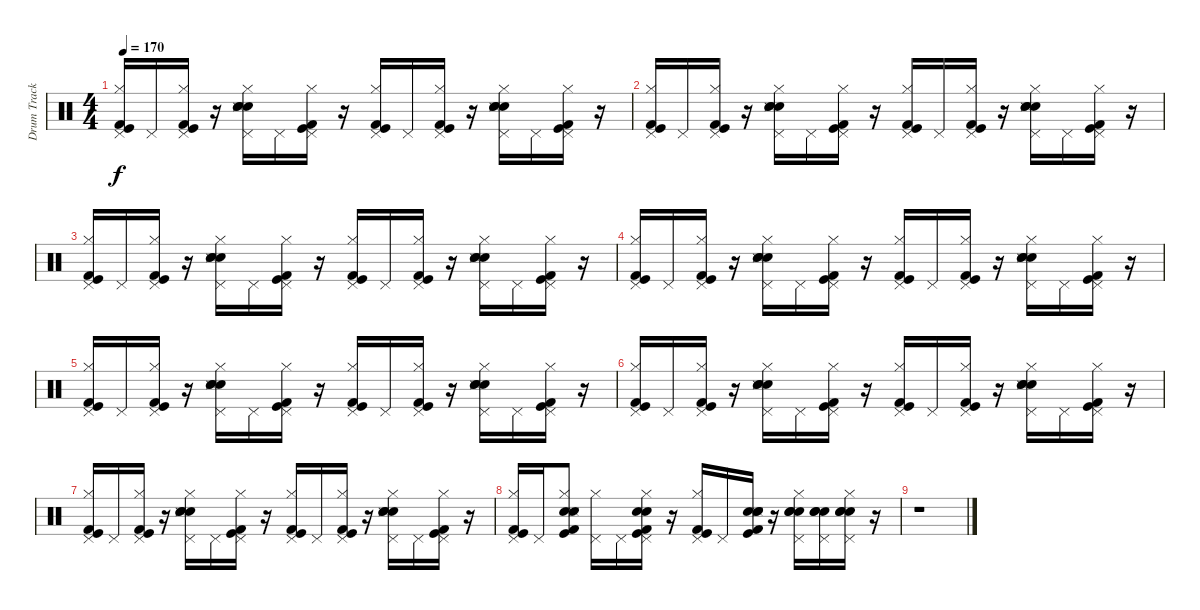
\track ("Drum Track" "Drum Track") {instrument percussion}
\staff {score}
\articulation defaults
\ts (4 4)
\tempo 170
\clef neutral
\ks c
("Kick (hit)" "Kick (hit) 2" "Hi-Hat (closed)" "Pedal Hi-Hat (hit)").16{dy f} "Pedal Hi-Hat (hit)".16 ("Kick (hit)" "Kick (hit) 2" "Hi-Hat (closed)" "Pedal Hi-Hat (hit)").16 r.16 ("Snare (hit) 2" "Electric Snare (hit)" "Snare (side stick) 3" "Hand Clap (hit)" "Hi-Hat (closed)" "Pedal Hi-Hat (hit)").16 "Pedal Hi-Hat (hit)".16 ("Kick (hit) 2" "Kick (hit)" "Hi-Hat (closed)" "Pedal Hi-Hat (hit)").16 r.16 ("Kick (hit)" "Kick (hit) 2" "Hi-Hat (closed)" "Pedal Hi-Hat (hit)").16 "Pedal Hi-Hat (hit)".16 ("Kick (hit)" "Kick (hit) 2" "Hi-Hat (closed)" "Pedal Hi-Hat (hit)").16 r.16 ("Snare (hit) 2" "Electric Snare (hit)" "Snare (side stick) 3" "Hand Clap (hit)" "Hi-Hat (closed)" "Pedal Hi-Hat (hit)").16 "Pedal Hi-Hat (hit)".16 ("Kick (hit) 2" "Kick (hit)" "Hi-Hat (closed)" "Pedal Hi-Hat (hit)").16 r.16 |
("Kick (hit)" "Kick (hit) 2" "Hi-Hat (closed)" "Pedal Hi-Hat (hit)").16 "Pedal Hi-Hat (hit)".16 ("Kick (hit)" "Kick (hit) 2" "Hi-Hat (closed)" "Pedal Hi-Hat (hit)").16 r.16 ("Snare (hit) 2" "Electric Snare (hit)" "Snare (side stick) 3" "Hand Clap (hit)" "Hi-Hat (closed)" "Pedal Hi-Hat (hit)").16 "Pedal Hi-Hat (hit)".16 ("Kick (hit) 2" "Kick (hit)" "Hi-Hat (closed)" "Pedal Hi-Hat (hit)").16 r.16 ("Kick (hit)" "Kick (hit) 2" "Hi-Hat (closed)" "Pedal Hi-Hat (hit)").16 "Pedal Hi-Hat (hit)".16 ("Kick (hit)" "Kick (hit) 2" "Hi-Hat (closed)" "Pedal Hi-Hat (hit)").16 r.16 ("Snare (hit) 2" "Electric Snare (hit)" "Snare (side stick) 3" "Hand Clap (hit)" "Hi-Hat (closed)" "Pedal Hi-Hat (hit)").16 "Pedal Hi-Hat (hit)".16 ("Kick (hit) 2" "Kick (hit)" "Hi-Hat (closed)" "Pedal Hi-Hat (hit)").16 r.16 |
("Kick (hit)" "Kick (hit) 2" "Hi-Hat (closed)" "Pedal Hi-Hat (hit)").16 "Pedal Hi-Hat (hit)".16 ("Kick (hit)" "Kick (hit) 2" "Hi-Hat (closed)" "Pedal Hi-Hat (hit)").16 r.16 ("Snare (hit) 2" "Electric Snare (hit)" "Snare (side stick) 3" "Hand Clap (hit)" "Hi-Hat (closed)" "Pedal Hi-Hat (hit)").16 "Pedal Hi-Hat (hit)".16 ("Kick (hit) 2" "Kick (hit)" "Hi-Hat (closed)" "Pedal Hi-Hat (hit)").16 r.16 ("Kick (hit)" "Kick (hit) 2" "Hi-Hat (closed)" "Pedal Hi-Hat (hit)").16 "Pedal Hi-Hat (hit)".16 ("Kick (hit)" "Kick (hit) 2" "Hi-Hat (closed)" "Pedal Hi-Hat (hit)").16 r.16 ("Snare (hit) 2" "Electric Snare (hit)" "Snare (side stick) 3" "Hand Clap (hit)" "Hi-Hat (closed)" "Pedal Hi-Hat (hit)").16 "Pedal Hi-Hat (hit)".16 ("Kick (hit) 2" "Kick (hit)" "Hi-Hat (closed)" "Pedal Hi-Hat (hit)").16 r.16 |
("Kick (hit)" "Kick (hit) 2" "Hi-Hat (closed)" "Pedal Hi-Hat (hit)").16 "Pedal Hi-Hat (hit)".16 ("Kick (hit)" "Kick (hit) 2" "Hi-Hat (closed)" "Pedal Hi-Hat (hit)").16 r.16 ("Snare (hit) 2" "Electric Snare (hit)" "Snare (side stick) 3" "Hand Clap (hit)" "Hi-Hat (closed)" "Pedal Hi-Hat (hit)").16 "Pedal Hi-Hat (hit)".16 ("Kick (hit) 2" "Kick (hit)" "Hi-Hat (closed)" "Pedal Hi-Hat (hit)").16 r.16 ("Kick (hit)" "Kick (hit) 2" "Hi-Hat (closed)" "Pedal Hi-Hat (hit)").16 "Pedal Hi-Hat (hit)".16 ("Kick (hit)" "Kick (hit) 2" "Hi-Hat (closed)" "Pedal Hi-Hat (hit)").16 r.16 ("Snare (hit) 2" "Electric Snare (hit)" "Snare (side stick) 3" "Hand Clap (hit)" "Hi-Hat (closed)" "Pedal Hi-Hat (hit)").16 "Pedal Hi-Hat (hit)".16 ("Kick (hit) 2" "Kick (hit)" "Hi-Hat (closed)" "Pedal Hi-Hat (hit)").16 r.16 |
("Kick (hit)" "Kick (hit) 2" "Hi-Hat (closed)" "Pedal Hi-Hat (hit)").16 "Pedal Hi-Hat (hit)".16 ("Kick (hit)" "Kick (hit) 2" "Hi-Hat (closed)" "Pedal Hi-Hat (hit)").16 r.16 ("Snare (hit) 2" "Electric Snare (hit)" "Snare (side stick) 3" "Hand Clap (hit)" "Hi-Hat (closed)" "Pedal Hi-Hat (hit)").16 "Pedal Hi-Hat (hit)".16 ("Kick (hit) 2" "Kick (hit)" "Hi-Hat (closed)" "Pedal Hi-Hat (hit)").16 r.16 ("Kick (hit)" "Kick (hit) 2" "Hi-Hat (closed)" "Pedal Hi-Hat (hit)").16 "Pedal Hi-Hat (hit)".16 ("Kick (hit)" "Kick (hit) 2" "Hi-Hat (closed)" "Pedal Hi-Hat (hit)").16 r.16 ("Snare (hit) 2" "Electric Snare (hit)" "Snare (side stick) 3" "Hand Clap (hit)" "Hi-Hat (closed)" "Pedal Hi-Hat (hit)").16 "Pedal Hi-Hat (hit)".16 ("Kick (hit) 2" "Kick (hit)" "Hi-Hat (closed)" "Pedal Hi-Hat (hit)").16 r.16 |
("Kick (hit)" "Kick (hit) 2" "Hi-Hat (closed)" "Pedal Hi-Hat (hit)").16 "Pedal Hi-Hat (hit)".16 ("Kick (hit)" "Kick (hit) 2" "Hi-Hat (closed)" "Pedal Hi-Hat (hit)").16 r.16 ("Snare (hit) 2" "Electric Snare (hit)" "Snare (side stick) 3" "Hand Clap (hit)" "Hi-Hat (closed)" "Pedal Hi-Hat (hit)").16 "Pedal Hi-Hat (hit)".16 ("Kick (hit) 2" "Kick (hit)" "Hi-Hat (closed)" "Pedal Hi-Hat (hit)").16 r.16 ("Kick (hit)" "Kick (hit) 2" "Hi-Hat (closed)" "Pedal Hi-Hat (hit)").16 "Pedal Hi-Hat (hit)".16 ("Kick (hit)" "Kick (hit) 2" "Hi-Hat (closed)" "Pedal Hi-Hat (hit)").16 r.16 ("Snare (hit) 2" "Electric Snare (hit)" "Snare (side stick) 3" "Hand Clap (hit)" "Hi-Hat (closed)" "Pedal Hi-Hat (hit)").16 "Pedal Hi-Hat (hit)".16 ("Kick (hit) 2" "Kick (hit)" "Hi-Hat (closed)" "Pedal Hi-Hat (hit)").16 r.16 |
("Kick (hit)" "Kick (hit) 2" "Hi-Hat (closed)" "Pedal Hi-Hat (hit)").16 "Pedal Hi-Hat (hit)".16 ("Kick (hit)" "Kick (hit) 2" "Hi-Hat (closed)" "Pedal Hi-Hat (hit)").16 r.16 ("Snare (hit) 2" "Electric Snare (hit)" "Snare (side stick) 3" "Hand Clap (hit)" "Hi-Hat (closed)" "Pedal Hi-Hat (hit)").16 "Pedal Hi-Hat (hit)".16 ("Kick (hit) 2" "Kick (hit)" "Hi-Hat (closed)" "Pedal Hi-Hat (hit)").16 r.16 ("Kick (hit)" "Kick (hit) 2" "Hi-Hat (closed)" "Pedal Hi-Hat (hit)").16 "Pedal Hi-Hat (hit)".16 ("Kick (hit)" "Kick (hit) 2" "Hi-Hat (closed)" "Pedal Hi-Hat (hit)").16 r.16 ("Snare (hit) 2" "Electric Snare (hit)" "Snare (side stick) 3" "Hand Clap (hit)" "Hi-Hat (closed)" "Pedal Hi-Hat (hit)").16 "Pedal Hi-Hat (hit)".16 ("Kick (hit) 2" "Kick (hit)" "Hi-Hat (closed)" "Pedal Hi-Hat (hit)").16 r.16 |
("Kick (hit)" "Kick (hit) 2" "Hi-Hat (closed)" "Pedal Hi-Hat (hit)").16 "Pedal Hi-Hat (hit)".16 ("Snare (hit) 2" "Snare (side stick) 3" "Hand Clap (hit)" "Kick (hit)" "Kick (hit) 2" "Hi-Hat (closed)").8 ("Hi-Hat (closed)" "Pedal Hi-Hat (hit)").16 "Pedal Hi-Hat (hit)".16 ("Kick (hit) 2" "Kick (hit)" "Hi-Hat (closed)" "Pedal Hi-Hat (hit)" "Electric Snare (hit)" "Snare (hit) 2").16 r.16 ("Kick (hit)" "Kick (hit) 2" "Hi-Hat (closed)" "Pedal Hi-Hat (hit)").16 "Pedal Hi-Hat (hit)".16 ("Hand Clap (hit)" "Snare (side stick) 3" "Electric Snare (hit)" "Snare (hit) 2" "Kick (hit)" "Kick (hit) 2").16 r.16 ("Hi-Hat (closed)" "Pedal Hi-Hat (hit)" "Electric Snare (hit)" "Hand Clap (hit)" "Snare (hit) 2").16 ("Pedal Hi-Hat (hit)" "Electric Snare (hit)" "Hand Clap (hit)" "Snare (hit) 2").16 ("Hi-Hat (closed)" "Pedal Hi-Hat (hit)" "Electric Snare (hit)" "Hand Clap (hit)" "Snare (hit) 2").16 r.16 |
r.1
